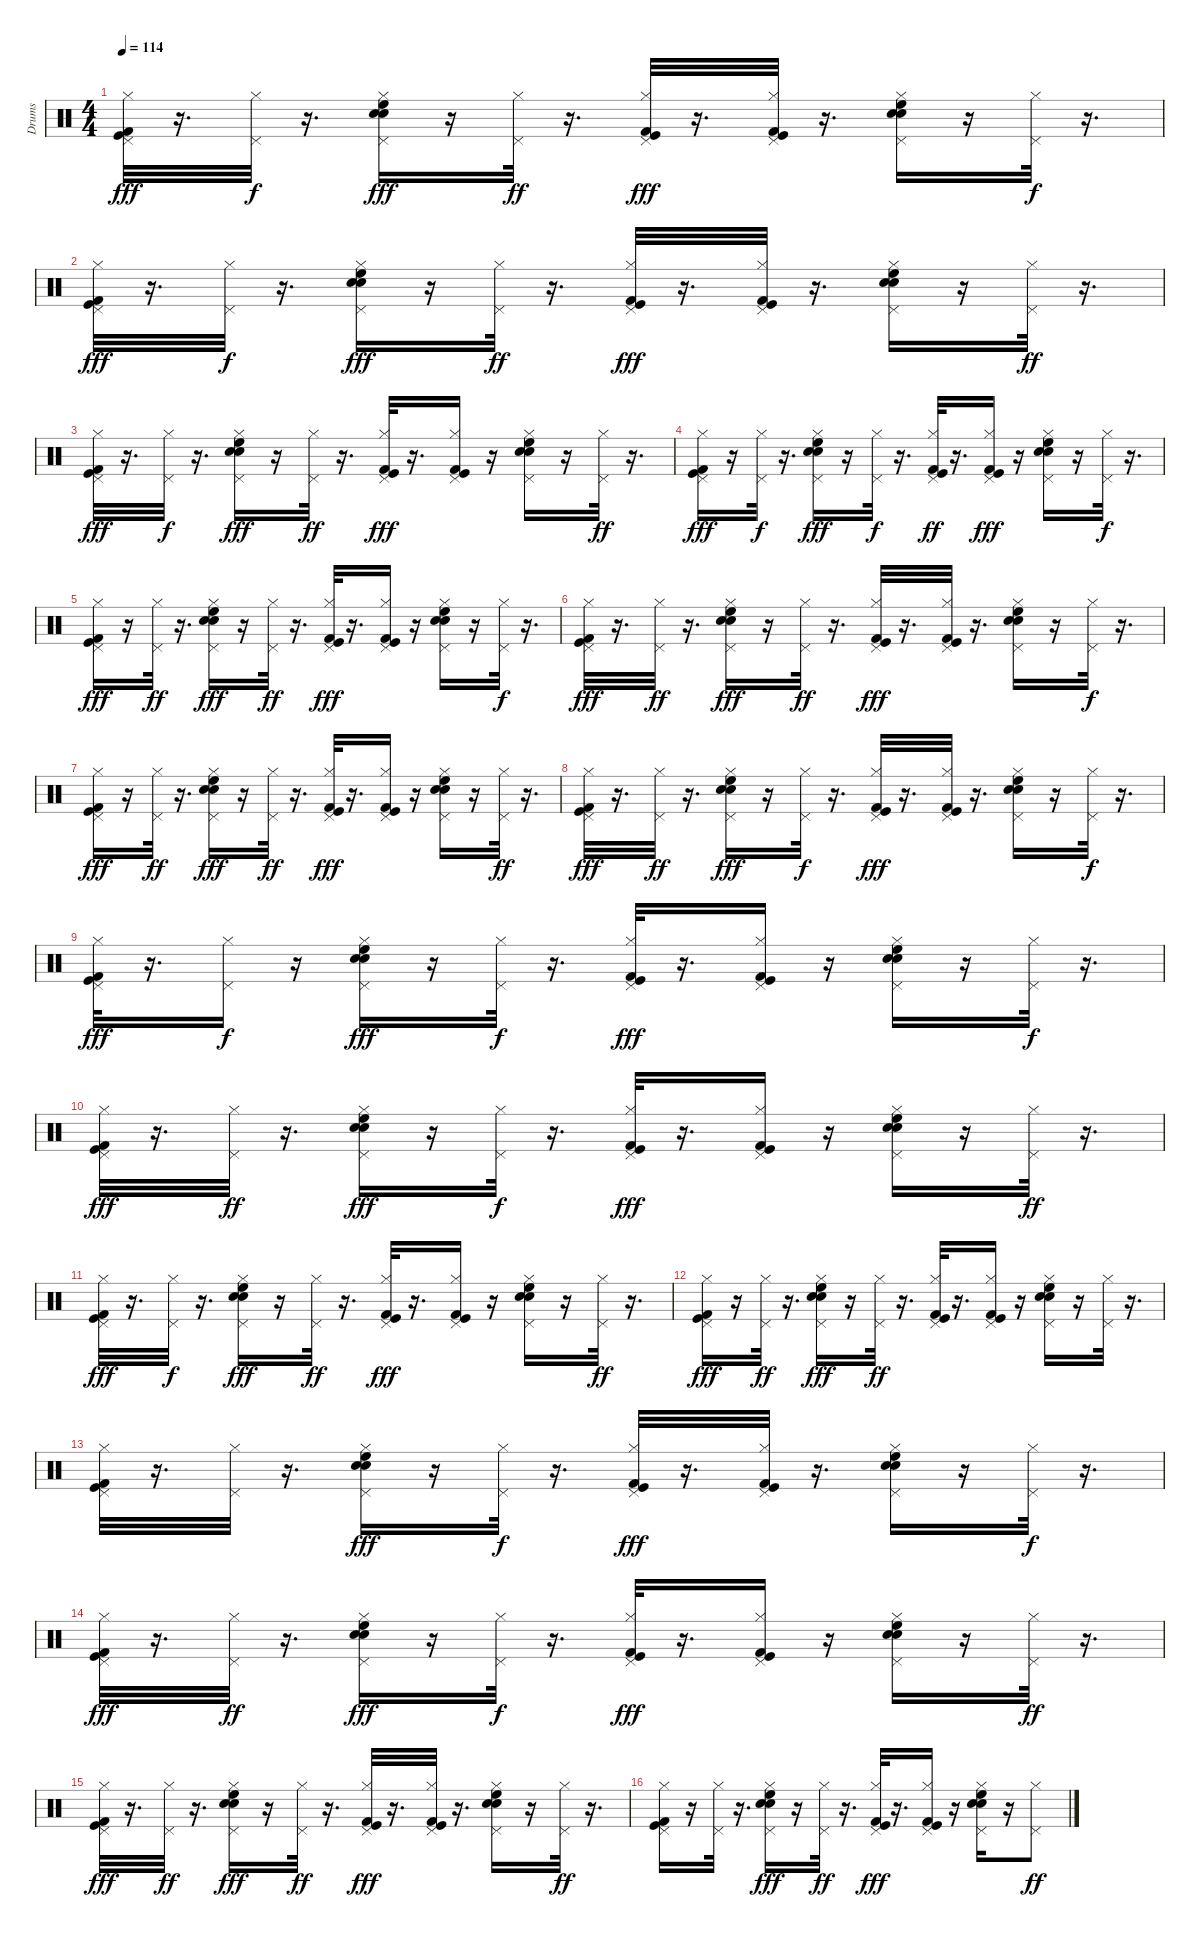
\track ("Drums" "Drums") {instrument percussion}
\staff {score}
\articulation defaults
\ts (4 4)
\tempo 114
\clef neutral
\ks c
("Kick (hit)" "Pedal Hi-Hat (hit)" "Hi-Hat (closed)" "Kick (hit) 2").32{dy fff} r.16{d} ("Pedal Hi-Hat (hit)" "Hi-Hat (closed)").32{dy f} r.16{d} ("High Floor Tom (hit)" "Snare (hit) 2" "Pedal Hi-Hat (hit)" "Hi-Hat (closed)" "Electric Snare (hit)").16{dy fff} r.16 ("Pedal Hi-Hat (hit)" "Hi-Hat (closed)").32{dy ff} r.16{d} ("Pedal Hi-Hat (hit)" "Hi-Hat (closed)" "Kick (hit) 2" "Kick (hit)").32{dy fff} r.16{d} ("Pedal Hi-Hat (hit)" "Hi-Hat (closed)" "Kick (hit)" "Kick (hit) 2").32 r.16{d} ("Pedal Hi-Hat (hit)" "Snare (hit) 2" "Hi-Hat (closed)" "High Floor Tom (hit)" "Electric Snare (hit)").16 r.16 ("Pedal Hi-Hat (hit)" "Hi-Hat (closed)").32{dy f} r.16{d} |
("Pedal Hi-Hat (hit)" "Hi-Hat (closed)" "Kick (hit)" "Kick (hit) 2").32{dy fff} r.16{d} ("Pedal Hi-Hat (hit)" "Hi-Hat (closed)").32{dy f} r.16{d} ("Snare (hit) 2" "High Floor Tom (hit)" "Pedal Hi-Hat (hit)" "Hi-Hat (closed)" "Electric Snare (hit)").16{dy fff} r.16 ("Pedal Hi-Hat (hit)" "Hi-Hat (closed)").32{dy ff} r.16{d} ("Kick (hit) 2" "Pedal Hi-Hat (hit)" "Hi-Hat (closed)" "Kick (hit)").32{dy fff} r.16{d} ("Pedal Hi-Hat (hit)" "Kick (hit) 2" "Hi-Hat (closed)" "Kick (hit)").32 r.16{d} ("Electric Snare (hit)" "Pedal Hi-Hat (hit)" "High Floor Tom (hit)" "Hi-Hat (closed)" "Snare (hit) 2").16 r.16 ("Pedal Hi-Hat (hit)" "Hi-Hat (closed)").32{dy ff} r.16{d} |
("Pedal Hi-Hat (hit)" "Hi-Hat (closed)" "Kick (hit) 2" "Kick (hit)").32{dy fff} r.16{d} ("Pedal Hi-Hat (hit)" "Hi-Hat (closed)").32{dy f} r.16{d} ("Electric Snare (hit)" "Pedal Hi-Hat (hit)" "Hi-Hat (closed)" "High Floor Tom (hit)" "Snare (hit) 2").16{dy fff} r.16 ("Pedal Hi-Hat (hit)" "Hi-Hat (closed)").32{dy ff} r.16{d} ("Kick (hit) 2" "Pedal Hi-Hat (hit)" "Hi-Hat (closed)" "Kick (hit)").32{dy fff} r.16{d} ("Pedal Hi-Hat (hit)" "Kick (hit) 2" "Hi-Hat (closed)" "Kick (hit)").16 r.16 ("High Floor Tom (hit)" "Electric Snare (hit)" "Pedal Hi-Hat (hit)" "Hi-Hat (closed)" "Snare (hit) 2").16 r.16 ("Pedal Hi-Hat (hit)" "Hi-Hat (closed)").32{dy ff} r.16{d} |
("Kick (hit) 2" "Pedal Hi-Hat (hit)" "Hi-Hat (closed)" "Kick (hit)").16{dy fff} r.16 ("Pedal Hi-Hat (hit)" "Hi-Hat (closed)").32{dy f} r.16{d} ("Electric Snare (hit)" "Pedal Hi-Hat (hit)" "Hi-Hat (closed)" "High Floor Tom (hit)" "Snare (hit) 2").16{dy fff} r.16 ("Pedal Hi-Hat (hit)" "Hi-Hat (closed)").32{dy f} r.16{d} ("Kick (hit) 2" "Pedal Hi-Hat (hit)" "Kick (hit)" "Hi-Hat (closed)").32{dy ff} r.16{d} ("Pedal Hi-Hat (hit)" "Hi-Hat (closed)" "Kick (hit)" "Kick (hit) 2").16{dy fff} r.16 ("Pedal Hi-Hat (hit)" "Snare (hit) 2" "High Floor Tom (hit)" "Hi-Hat (closed)" "Electric Snare (hit)").16 r.16 ("Pedal Hi-Hat (hit)" "Hi-Hat (closed)").32{dy f} r.16{d} |
("Kick (hit) 2" "Pedal Hi-Hat (hit)" "Hi-Hat (closed)" "Kick (hit)").16{dy fff} r.16 ("Pedal Hi-Hat (hit)" "Hi-Hat (closed)").32{dy ff} r.16{d} ("Electric Snare (hit)" "Snare (hit) 2" "Pedal Hi-Hat (hit)" "Hi-Hat (closed)" "High Floor Tom (hit)").16{dy fff} r.16 ("Pedal Hi-Hat (hit)" "Hi-Hat (closed)").32{dy ff} r.16{d} ("Kick (hit) 2" "Pedal Hi-Hat (hit)" "Hi-Hat (closed)" "Kick (hit)").32{dy fff} r.16{d} ("Pedal Hi-Hat (hit)" "Kick (hit) 2" "Hi-Hat (closed)" "Kick (hit)").16 r.16 ("Snare (hit) 2" "High Floor Tom (hit)" "Pedal Hi-Hat (hit)" "Hi-Hat (closed)" "Electric Snare (hit)").16 r.16 ("Hi-Hat (closed)" "Pedal Hi-Hat (hit)").32{dy f} r.16{d} |
("Kick (hit)" "Pedal Hi-Hat (hit)" "Hi-Hat (closed)" "Kick (hit) 2").32{dy fff} r.16{d} ("Pedal Hi-Hat (hit)" "Hi-Hat (closed)").32{dy ff} r.16{d} ("Pedal Hi-Hat (hit)" "Snare (hit) 2" "Hi-Hat (closed)" "High Floor Tom (hit)" "Electric Snare (hit)").16{dy fff} r.16 ("Pedal Hi-Hat (hit)" "Hi-Hat (closed)").32{dy ff} r.16{d} ("Hi-Hat (closed)" "Pedal Hi-Hat (hit)" "Kick (hit)" "Kick (hit) 2").32{dy fff} r.16{d} ("Pedal Hi-Hat (hit)" "Kick (hit)" "Hi-Hat (closed)" "Kick (hit) 2").32 r.16{d} ("Snare (hit) 2" "High Floor Tom (hit)" "Pedal Hi-Hat (hit)" "Hi-Hat (closed)" "Electric Snare (hit)").16 r.16 ("Pedal Hi-Hat (hit)" "Hi-Hat (closed)").32{dy f} r.16{d} |
("Kick (hit)" "Pedal Hi-Hat (hit)" "Hi-Hat (closed)" "Kick (hit) 2").16{dy fff} r.16 ("Pedal Hi-Hat (hit)" "Hi-Hat (closed)").32{dy ff} r.16{d} ("Pedal Hi-Hat (hit)" "Hi-Hat (closed)" "Electric Snare (hit)" "Snare (hit) 2" "High Floor Tom (hit)").16{dy fff} r.16 ("Pedal Hi-Hat (hit)" "Hi-Hat (closed)").32{dy ff} r.16{d} ("Kick (hit)" "Pedal Hi-Hat (hit)" "Hi-Hat (closed)" "Kick (hit) 2").32{dy fff} r.16{d} ("Hi-Hat (closed)" "Pedal Hi-Hat (hit)" "Kick (hit)" "Kick (hit) 2").16 r.16 ("High Floor Tom (hit)" "Pedal Hi-Hat (hit)" "Hi-Hat (closed)" "Electric Snare (hit)" "Snare (hit) 2").16 r.16 ("Pedal Hi-Hat (hit)" "Hi-Hat (closed)").32{dy ff} r.16{d} |
("Kick (hit)" "Pedal Hi-Hat (hit)" "Hi-Hat (closed)" "Kick (hit) 2").32{dy fff} r.16{d} ("Pedal Hi-Hat (hit)" "Hi-Hat (closed)").32{dy ff} r.16{d} ("Snare (hit) 2" "Pedal Hi-Hat (hit)" "Hi-Hat (closed)" "Electric Snare (hit)" "High Floor Tom (hit)").16{dy fff} r.16 ("Pedal Hi-Hat (hit)" "Hi-Hat (closed)").32{dy f} r.16{d} ("Pedal Hi-Hat (hit)" "Hi-Hat (closed)" "Kick (hit)" "Kick (hit) 2").32{dy fff} r.16{d} ("Hi-Hat (closed)" "Pedal Hi-Hat (hit)" "Kick (hit)" "Kick (hit) 2").32 r.16{d} ("Snare (hit) 2" "Pedal Hi-Hat (hit)" "Electric Snare (hit)" "Hi-Hat (closed)" "High Floor Tom (hit)").16 r.16 ("Hi-Hat (closed)" "Pedal Hi-Hat (hit)").32{dy f} r.16{d} |
("Kick (hit)" "Kick (hit) 2" "Pedal Hi-Hat (hit)" "Hi-Hat (closed)").32{dy fff} r.16{d} ("Pedal Hi-Hat (hit)" "Hi-Hat (closed)").16{dy f} r.16 ("Electric Snare (hit)" "Pedal Hi-Hat (hit)" "Snare (hit) 2" "Hi-Hat (closed)" "High Floor Tom (hit)").16{dy fff} r.16 ("Pedal Hi-Hat (hit)" "Hi-Hat (closed)").32{dy f} r.16{d} ("Kick (hit)" "Hi-Hat (closed)" "Pedal Hi-Hat (hit)" "Kick (hit) 2").32{dy fff} r.16{d} ("Kick (hit) 2" "Kick (hit)" "Hi-Hat (closed)" "Pedal Hi-Hat (hit)").16 r.16 ("Electric Snare (hit)" "Pedal Hi-Hat (hit)" "Hi-Hat (closed)" "High Floor Tom (hit)" "Snare (hit) 2").16 r.16 ("Pedal Hi-Hat (hit)" "Hi-Hat (closed)").32{dy f} r.16{d} |
("Kick (hit)" "Kick (hit) 2" "Pedal Hi-Hat (hit)" "Hi-Hat (closed)").32{dy fff} r.16{d} ("Pedal Hi-Hat (hit)" "Hi-Hat (closed)").32{dy ff} r.16{d} ("Snare (hit) 2" "Electric Snare (hit)" "Pedal Hi-Hat (hit)" "High Floor Tom (hit)" "Hi-Hat (closed)").16{dy fff} r.16 ("Hi-Hat (closed)" "Pedal Hi-Hat (hit)").32{dy f} r.16{d} ("Pedal Hi-Hat (hit)" "Kick (hit) 2" "Hi-Hat (closed)" "Kick (hit)").32{dy fff} r.16{d} ("Pedal Hi-Hat (hit)" "Kick (hit) 2" "Hi-Hat (closed)" "Kick (hit)").16 r.16 ("High Floor Tom (hit)" "Electric Snare (hit)" "Hi-Hat (closed)" "Snare (hit) 2" "Pedal Hi-Hat (hit)").16 r.16 ("Pedal Hi-Hat (hit)" "Hi-Hat (closed)").32{dy ff} r.16{d} |
("Kick (hit)" "Kick (hit) 2" "Pedal Hi-Hat (hit)" "Hi-Hat (closed)").32{dy fff} r.16{d} ("Pedal Hi-Hat (hit)" "Hi-Hat (closed)").32{dy f} r.16{d} ("Pedal Hi-Hat (hit)" "Hi-Hat (closed)" "Electric Snare (hit)" "High Floor Tom (hit)" "Snare (hit) 2").16{dy fff} r.16 ("Pedal Hi-Hat (hit)" "Hi-Hat (closed)").32{dy ff} r.16{d} ("Pedal Hi-Hat (hit)" "Hi-Hat (closed)" "Kick (hit)" "Kick (hit) 2").32{dy fff} r.16{d} ("Pedal Hi-Hat (hit)" "Hi-Hat (closed)" "Kick (hit) 2" "Kick (hit)").16 r.16 ("Snare (hit) 2" "Pedal Hi-Hat (hit)" "Electric Snare (hit)" "Hi-Hat (closed)" "High Floor Tom (hit)").16 r.16 ("Pedal Hi-Hat (hit)" "Hi-Hat (closed)").32{dy ff} r.16{d} |
("Pedal Hi-Hat (hit)" "Hi-Hat (closed)" "Kick (hit) 2" "Kick (hit)").16{dy fff} r.16 ("Pedal Hi-Hat (hit)" "Hi-Hat (closed)").32{dy ff} r.16{d} ("Electric Snare (hit)" "Pedal Hi-Hat (hit)" "Hi-Hat (closed)" "Snare (hit) 2" "High Floor Tom (hit)").16{dy fff volume 16} r.16 ("Pedal Hi-Hat (hit)" "Hi-Hat (closed)").32{dy ff} r.16{d} ("Kick (hit) 2" "Pedal Hi-Hat (hit)" "Kick (hit)" "Hi-Hat (closed)").32{volume 15} r.16{d} ("Kick (hit)" "Kick (hit) 2" "Pedal Hi-Hat (hit)" "Hi-Hat (closed)").16 r.16 ("High Floor Tom (hit)" "Snare (hit) 2" "Electric Snare (hit)" "Pedal Hi-Hat (hit)" "Hi-Hat (closed)").16 r.16 ("Pedal Hi-Hat (hit)" "Hi-Hat (closed)").32 r.16{d} |
("Kick (hit)" "Kick (hit) 2" "Hi-Hat (closed)" "Pedal Hi-Hat (hit)").32{volume 15} r.16{d} ("Hi-Hat (closed)" "Pedal Hi-Hat (hit)").32 r.16{d} ("Electric Snare (hit)" "High Floor Tom (hit)" "Hi-Hat (closed)" "Pedal Hi-Hat (hit)" "Snare (hit) 2").16{dy fff volume 15} r.16 ("Pedal Hi-Hat (hit)" "Hi-Hat (closed)").32{dy f} r.16{d} ("Kick (hit)" "Pedal Hi-Hat (hit)" "Kick (hit) 2" "Hi-Hat (closed)").32{dy fff volume 15} r.16{d} ("Kick (hit) 2" "Hi-Hat (closed)" "Pedal Hi-Hat (hit)" "Kick (hit)").32 r.16{d} ("Snare (hit) 2" "Electric Snare (hit)" "Hi-Hat (closed)" "Pedal Hi-Hat (hit)" "High Floor Tom (hit)").16{volume 15} r.16 ("Hi-Hat (closed)" "Pedal Hi-Hat (hit)").32{dy f} r.16{d} |
("Hi-Hat (closed)" "Pedal Hi-Hat (hit)" "Kick (hit)" "Kick (hit) 2").32{dy fff volume 14} r.16{d} ("Hi-Hat (closed)" "Pedal Hi-Hat (hit)").32{dy ff volume 14} r.16{d} ("Electric Snare (hit)" "Hi-Hat (closed)" "Pedal Hi-Hat (hit)" "Snare (hit) 2" "High Floor Tom (hit)").16{dy fff} r.16 ("Pedal Hi-Hat (hit)" "Hi-Hat (closed)").32{dy f volume 14} r.16{d} ("Kick (hit) 2" "Pedal Hi-Hat (hit)" "Hi-Hat (closed)" "Kick (hit)").32{dy fff volume 14} r.16{d} ("Kick (hit) 2" "Pedal Hi-Hat (hit)" "Hi-Hat (closed)" "Kick (hit)").16{volume 13} r.16 ("Snare (hit) 2" "High Floor Tom (hit)" "Pedal Hi-Hat (hit)" "Hi-Hat (closed)" "Electric Snare (hit)").16 r.16 ("Pedal Hi-Hat (hit)" "Hi-Hat (closed)").32{dy ff volume 13} r.16{d} |
("Kick (hit) 2" "Pedal Hi-Hat (hit)" "Hi-Hat (closed)" "Kick (hit)").32{dy fff volume 13} r.16{d} ("Hi-Hat (closed)" "Pedal Hi-Hat (hit)").32{dy ff} r.16{d} ("Electric Snare (hit)" "Snare (hit) 2" "High Floor Tom (hit)" "Pedal Hi-Hat (hit)" "Hi-Hat (closed)").16{dy fff} r.16 ("Pedal Hi-Hat (hit)" "Hi-Hat (closed)").32{dy ff volume 13} r.16{d} ("Pedal Hi-Hat (hit)" "Hi-Hat (closed)" "Kick (hit) 2" "Kick (hit)").32{dy fff} r.16{d} ("Kick (hit) 2" "Hi-Hat (closed)" "Pedal Hi-Hat (hit)" "Kick (hit)").32{volume 12} r.16{d} ("Snare (hit) 2" "High Floor Tom (hit)" "Hi-Hat (closed)" "Pedal Hi-Hat (hit)" "Electric Snare (hit)").16{volume 12} r.16 ("Pedal Hi-Hat (hit)" "Hi-Hat (closed)").32{dy ff volume 12} r.16{d} |
("Kick (hit) 2" "Kick (hit)" "Hi-Hat (closed)" "Pedal Hi-Hat (hit)").16{volume 12} r.16 ("Pedal Hi-Hat (hit)" "Hi-Hat (closed)").32{volume 12} r.16{d} ("Snare (hit) 2" "Hi-Hat (closed)" "Pedal Hi-Hat (hit)" "Electric Snare (hit)" "High Floor Tom (hit)").16{dy fff} r.16 ("Pedal Hi-Hat (hit)" "Hi-Hat (closed)").32{dy ff} r.16{d} ("Pedal Hi-Hat (hit)" "Hi-Hat (closed)" "Kick (hit)" "Kick (hit) 2").32{dy fff volume 12} r.16{d} ("Pedal Hi-Hat (hit)" "Kick (hit) 2" "Hi-Hat (closed)" "Kick (hit)").16{volume 11} r.16 ("Electric Snare (hit)" "Hi-Hat (closed)" "Snare (hit) 2" "Pedal Hi-Hat (hit)" "High Floor Tom (hit)").16{volume 11} r.16 ("Pedal Hi-Hat (hit)" "Hi-Hat (closed)").8{dy ff}
